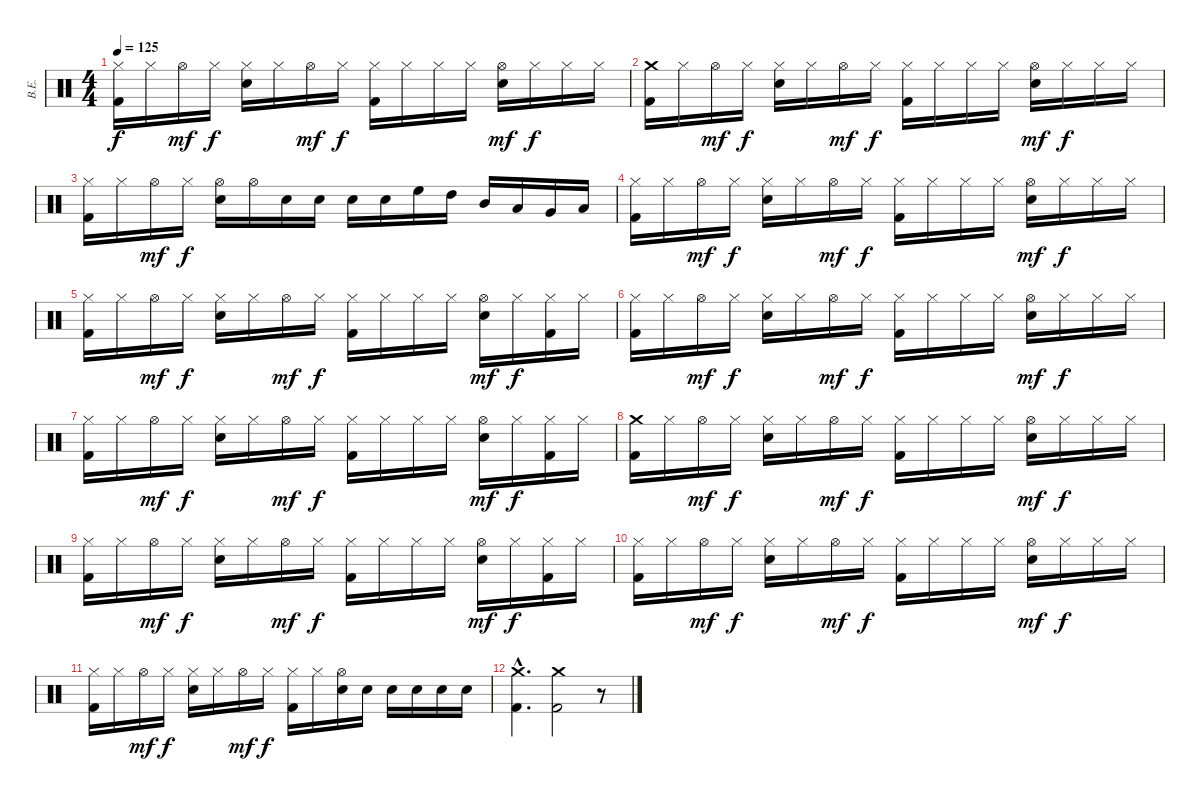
\track ("В.Е." "В.Е.") {instrument percussion}
\staff {score}
\articulation defaults
\ts (4 4)
\tempo 125
\clef neutral
\ks c
("Hi-Hat (closed)" "Kick (hit) 2").16{dy f} "Hi-Hat (closed)".16 "Hi-Hat (open)".16{dy mf} "Hi-Hat (closed)".16{dy f} ("Hi-Hat (closed)" "Electric Snare (hit)").16 "Hi-Hat (closed)".16 "Hi-Hat (open)".16{dy mf} "Hi-Hat (closed)".16{dy f} ("Hi-Hat (closed)" "Kick (hit) 2").16 "Hi-Hat (closed)".16 "Hi-Hat (closed)".16 "Hi-Hat (closed)".16 ("Hi-Hat (open)" "Electric Snare (hit)").16{dy mf} "Hi-Hat (closed)".16{dy f} "Hi-Hat (closed)".16 "Hi-Hat (closed)".16 |
("Crash medium (hit)" "Kick (hit) 2").16 "Hi-Hat (closed)".16 "Hi-Hat (open)".16{dy mf} "Hi-Hat (closed)".16{dy f} ("Hi-Hat (closed)" "Electric Snare (hit)").16 "Hi-Hat (closed)".16 "Hi-Hat (open)".16{dy mf} "Hi-Hat (closed)".16{dy f} ("Hi-Hat (closed)" "Kick (hit) 2").16 "Hi-Hat (closed)".16 "Hi-Hat (closed)".16 "Hi-Hat (closed)".16 ("Hi-Hat (open)" "Electric Snare (hit)").16{dy mf} "Hi-Hat (closed)".16{dy f} "Hi-Hat (closed)".16 "Hi-Hat (closed)".16 |
("Hi-Hat (closed)" "Kick (hit) 2").16 "Hi-Hat (closed)".16 "Hi-Hat (open)".16{dy mf} "Hi-Hat (closed)".16{dy f} ("Hi-Hat (open)" "Electric Snare (hit)").16 "Hi-Hat (open)".16 "Electric Snare (hit)".16 "Electric Snare (hit)".16 "Electric Snare (hit)".16 "Electric Snare (hit)".16 "High Floor Tom (hit)".16 "High Tom (hit)".16 "Mid Tom (hit)".16 "Low Tom (hit)".16 "Very Low Tom (hit)".16 "Low Floor Tom (hit)".16 |
("Hi-Hat (closed)" "Kick (hit) 2").16 "Hi-Hat (closed)".16 "Hi-Hat (open)".16{dy mf} "Hi-Hat (closed)".16{dy f} ("Hi-Hat (closed)" "Electric Snare (hit)").16 "Hi-Hat (closed)".16 "Hi-Hat (open)".16{dy mf} "Hi-Hat (closed)".16{dy f} ("Hi-Hat (closed)" "Kick (hit) 2").16 "Hi-Hat (closed)".16 "Hi-Hat (closed)".16 "Hi-Hat (closed)".16 ("Hi-Hat (open)" "Electric Snare (hit)").16{dy mf} "Hi-Hat (closed)".16{dy f} "Hi-Hat (closed)".16 "Hi-Hat (closed)".16 |
("Hi-Hat (closed)" "Kick (hit) 2").16 "Hi-Hat (closed)".16 "Hi-Hat (open)".16{dy mf} "Hi-Hat (closed)".16{dy f} ("Hi-Hat (closed)" "Electric Snare (hit)").16 "Hi-Hat (closed)".16 "Hi-Hat (open)".16{dy mf} "Hi-Hat (closed)".16{dy f} ("Hi-Hat (closed)" "Kick (hit) 2").16 "Hi-Hat (closed)".16 "Hi-Hat (closed)".16 "Hi-Hat (closed)".16 ("Hi-Hat (open)" "Electric Snare (hit)").16{dy mf} "Hi-Hat (closed)".16{dy f} ("Hi-Hat (closed)" "Kick (hit) 2").16 "Hi-Hat (closed)".16 |
("Hi-Hat (closed)" "Kick (hit) 2").16 "Hi-Hat (closed)".16 "Hi-Hat (open)".16{dy mf} "Hi-Hat (closed)".16{dy f} ("Hi-Hat (closed)" "Electric Snare (hit)").16 "Hi-Hat (closed)".16 "Hi-Hat (open)".16{dy mf} "Hi-Hat (closed)".16{dy f} ("Hi-Hat (closed)" "Kick (hit) 2").16 "Hi-Hat (closed)".16 "Hi-Hat (closed)".16 "Hi-Hat (closed)".16 ("Hi-Hat (open)" "Electric Snare (hit)").16{dy mf} "Hi-Hat (closed)".16{dy f} "Hi-Hat (closed)".16 "Hi-Hat (closed)".16 |
("Hi-Hat (closed)" "Kick (hit) 2").16 "Hi-Hat (closed)".16 "Hi-Hat (open)".16{dy mf} "Hi-Hat (closed)".16{dy f} ("Hi-Hat (closed)" "Electric Snare (hit)").16 "Hi-Hat (closed)".16 "Hi-Hat (open)".16{dy mf} "Hi-Hat (closed)".16{dy f} ("Hi-Hat (closed)" "Kick (hit) 2").16 "Hi-Hat (closed)".16 "Hi-Hat (closed)".16 "Hi-Hat (closed)".16 ("Hi-Hat (open)" "Electric Snare (hit)").16{dy mf} "Hi-Hat (closed)".16{dy f} ("Hi-Hat (closed)" "Kick (hit) 2").16 "Hi-Hat (closed)".16 |
("Crash medium (hit)" "Kick (hit) 2").16 "Hi-Hat (closed)".16 "Hi-Hat (open)".16{dy mf} "Hi-Hat (closed)".16{dy f} ("Hi-Hat (closed)" "Electric Snare (hit)").16 "Hi-Hat (closed)".16 "Hi-Hat (open)".16{dy mf} "Hi-Hat (closed)".16{dy f} ("Hi-Hat (closed)" "Kick (hit) 2").16 "Hi-Hat (closed)".16 "Hi-Hat (closed)".16 "Hi-Hat (closed)".16 ("Hi-Hat (open)" "Electric Snare (hit)").16{dy mf} "Hi-Hat (closed)".16{dy f} "Hi-Hat (closed)".16 "Hi-Hat (closed)".16 |
("Hi-Hat (closed)" "Kick (hit) 2").16 "Hi-Hat (closed)".16 "Hi-Hat (open)".16{dy mf} "Hi-Hat (closed)".16{dy f} ("Hi-Hat (closed)" "Electric Snare (hit)").16 "Hi-Hat (closed)".16 "Hi-Hat (open)".16{dy mf} "Hi-Hat (closed)".16{dy f} ("Hi-Hat (closed)" "Kick (hit) 2").16 "Hi-Hat (closed)".16 "Hi-Hat (closed)".16 "Hi-Hat (closed)".16 ("Hi-Hat (open)" "Electric Snare (hit)").16{dy mf} "Hi-Hat (closed)".16{dy f} ("Hi-Hat (closed)" "Kick (hit) 2").16 "Hi-Hat (closed)".16 |
("Hi-Hat (closed)" "Kick (hit) 2").16 "Hi-Hat (closed)".16 "Hi-Hat (open)".16{dy mf} "Hi-Hat (closed)".16{dy f} ("Hi-Hat (closed)" "Electric Snare (hit)").16 "Hi-Hat (closed)".16 "Hi-Hat (open)".16{dy mf} "Hi-Hat (closed)".16{dy f} ("Hi-Hat (closed)" "Kick (hit) 2").16 "Hi-Hat (closed)".16 "Hi-Hat (closed)".16 "Hi-Hat (closed)".16 ("Hi-Hat (open)" "Electric Snare (hit)").16{dy mf} "Hi-Hat (closed)".16{dy f} "Hi-Hat (closed)".16 "Hi-Hat (closed)".16 |
("Hi-Hat (closed)" "Kick (hit) 2").16 "Hi-Hat (closed)".16 "Hi-Hat (open)".16{dy mf} "Hi-Hat (closed)".16{dy f} ("Hi-Hat (closed)" "Electric Snare (hit)").16 "Hi-Hat (closed)".16 "Hi-Hat (open)".16{dy mf} "Hi-Hat (closed)".16{dy f} ("Hi-Hat (closed)" "Kick (hit) 2").16 "Hi-Hat (closed)".16 ("Hi-Hat (open)" "Electric Snare (hit)").16 "Electric Snare (hit)".16 "Electric Snare (hit)".16 "Electric Snare (hit)".16 "Electric Snare (hit)".16 "Electric Snare (hit)".16 |
("Crash medium (hit)"{hac} "Kick (hit) 2"{hac}).4{d} ("Crash medium (hit)" "Kick (hit) 2").2 r.8
